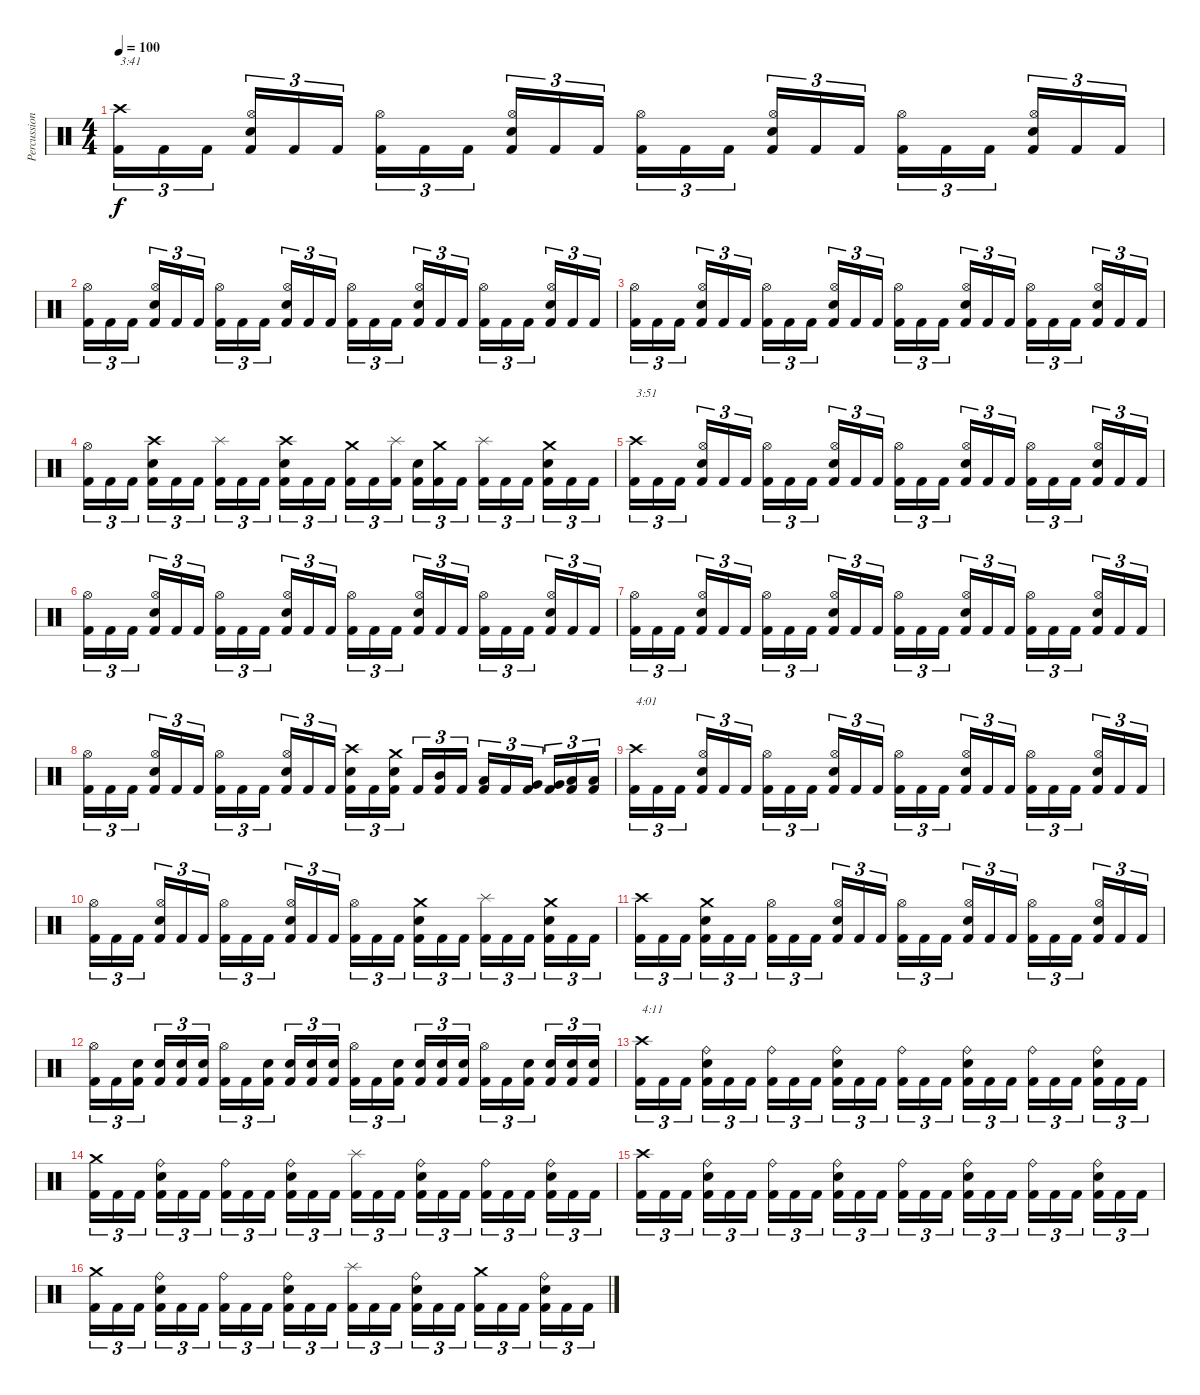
\track ("Percussion" "Percussion") {instrument percussion}
\staff {score}
\articulation defaults
\ts (4 4)
\tempo 100
\clef neutral
\ks c
("Crash high (hit)" "Kick (hit) 2").16{tu (3 2) txt "3:41" dy f} "Kick (hit) 2".16{tu (3 2)} "Kick (hit) 2".16{tu (3 2)} ("Hi-Hat (open)" "Snare (hit) 2" "Kick (hit) 2").16{tu (3 2)} "Kick (hit) 2".16{tu (3 2)} "Kick (hit) 2".16{tu (3 2)} ("Hi-Hat (open)" "Kick (hit) 2").16{tu (3 2)} "Kick (hit) 2".16{tu (3 2)} "Kick (hit) 2".16{tu (3 2)} ("Hi-Hat (open)" "Snare (hit) 2" "Kick (hit) 2").16{tu (3 2)} "Kick (hit) 2".16{tu (3 2)} "Kick (hit) 2".16{tu (3 2)} ("Hi-Hat (open)" "Kick (hit) 2").16{tu (3 2)} "Kick (hit) 2".16{tu (3 2)} "Kick (hit) 2".16{tu (3 2)} ("Hi-Hat (open)" "Snare (hit) 2" "Kick (hit) 2").16{tu (3 2)} "Kick (hit) 2".16{tu (3 2)} "Kick (hit) 2".16{tu (3 2)} ("Hi-Hat (open)" "Kick (hit) 2").16{tu (3 2)} "Kick (hit) 2".16{tu (3 2)} "Kick (hit) 2".16{tu (3 2)} ("Hi-Hat (open)" "Snare (hit) 2" "Kick (hit) 2").16{tu (3 2)} "Kick (hit) 2".16{tu (3 2)} "Kick (hit) 2".16{tu (3 2)} |
("Hi-Hat (open)" "Kick (hit) 2").16{tu (3 2)} "Kick (hit) 2".16{tu (3 2)} "Kick (hit) 2".16{tu (3 2)} ("Hi-Hat (open)" "Snare (hit) 2" "Kick (hit) 2").16{tu (3 2)} "Kick (hit) 2".16{tu (3 2)} "Kick (hit) 2".16{tu (3 2)} ("Hi-Hat (open)" "Kick (hit) 2").16{tu (3 2)} "Kick (hit) 2".16{tu (3 2)} "Kick (hit) 2".16{tu (3 2)} ("Hi-Hat (open)" "Snare (hit) 2" "Kick (hit) 2").16{tu (3 2)} "Kick (hit) 2".16{tu (3 2)} "Kick (hit) 2".16{tu (3 2)} ("Hi-Hat (open)" "Kick (hit) 2").16{tu (3 2)} "Kick (hit) 2".16{tu (3 2)} "Kick (hit) 2".16{tu (3 2)} ("Hi-Hat (open)" "Snare (hit) 2" "Kick (hit) 2").16{tu (3 2)} "Kick (hit) 2".16{tu (3 2)} "Kick (hit) 2".16{tu (3 2)} ("Hi-Hat (open)" "Kick (hit) 2").16{tu (3 2)} "Kick (hit) 2".16{tu (3 2)} "Kick (hit) 2".16{tu (3 2)} ("Hi-Hat (open)" "Snare (hit) 2" "Kick (hit) 2").16{tu (3 2)} "Kick (hit) 2".16{tu (3 2)} "Kick (hit) 2".16{tu (3 2)} |
("Hi-Hat (open)" "Kick (hit) 2").16{tu (3 2)} "Kick (hit) 2".16{tu (3 2)} "Kick (hit) 2".16{tu (3 2)} ("Hi-Hat (open)" "Snare (hit) 2" "Kick (hit) 2").16{tu (3 2)} "Kick (hit) 2".16{tu (3 2)} "Kick (hit) 2".16{tu (3 2)} ("Hi-Hat (open)" "Kick (hit) 2").16{tu (3 2)} "Kick (hit) 2".16{tu (3 2)} "Kick (hit) 2".16{tu (3 2)} ("Hi-Hat (open)" "Snare (hit) 2" "Kick (hit) 2").16{tu (3 2)} "Kick (hit) 2".16{tu (3 2)} "Kick (hit) 2".16{tu (3 2)} ("Hi-Hat (open)" "Kick (hit) 2").16{tu (3 2)} "Kick (hit) 2".16{tu (3 2)} "Kick (hit) 2".16{tu (3 2)} ("Hi-Hat (open)" "Snare (hit) 2" "Kick (hit) 2").16{tu (3 2)} "Kick (hit) 2".16{tu (3 2)} "Kick (hit) 2".16{tu (3 2)} ("Hi-Hat (open)" "Kick (hit) 2").16{tu (3 2)} "Kick (hit) 2".16{tu (3 2)} "Kick (hit) 2".16{tu (3 2)} ("Hi-Hat (open)" "Snare (hit) 2" "Kick (hit) 2").16{tu (3 2)} "Kick (hit) 2".16{tu (3 2)} "Kick (hit) 2".16{tu (3 2)} |
("Hi-Hat (open)" "Kick (hit) 2").16{tu (3 2)} "Kick (hit) 2".16{tu (3 2)} "Kick (hit) 2".16{tu (3 2)} ("Crash high (hit)" "Snare (hit) 2" "Kick (hit) 2").16{tu (3 2)} "Kick (hit) 2".16{tu (3 2)} "Kick (hit) 2".16{tu (3 2)} ("Splash (hit)" "Kick (hit) 2").16{tu (3 2)} "Kick (hit) 2".16{tu (3 2)} "Kick (hit) 2".16{tu (3 2)} ("Crash high (hit)" "Snare (hit) 2" "Kick (hit) 2").16{tu (3 2)} "Kick (hit) 2".16{tu (3 2)} "Kick (hit) 2".16{tu (3 2)} ("Crash medium (hit)" "Kick (hit) 2").16{tu (3 2)} "Kick (hit) 2".16{tu (3 2)} ("Splash (hit)" "Kick (hit) 2").16{tu (3 2)} ("Snare (hit) 2" "Kick (hit) 2").16{tu (3 2)} ("Crash medium (hit)" "Kick (hit) 2").16{tu (3 2)} "Kick (hit) 2".16{tu (3 2)} ("Splash (hit)" "Kick (hit) 2").16{tu (3 2)} "Kick (hit) 2".16{tu (3 2)} "Kick (hit) 2".16{tu (3 2)} ("Crash medium (hit)" "Snare (hit) 2" "Kick (hit) 2").16{tu (3 2)} "Kick (hit) 2".16{tu (3 2)} "Kick (hit) 2".16{tu (3 2)} |
("Crash high (hit)" "Kick (hit) 2").16{tu (3 2) txt "3:51"} "Kick (hit) 2".16{tu (3 2)} "Kick (hit) 2".16{tu (3 2)} ("Hi-Hat (open)" "Snare (hit) 2" "Kick (hit) 2").16{tu (3 2)} "Kick (hit) 2".16{tu (3 2)} "Kick (hit) 2".16{tu (3 2)} ("Hi-Hat (open)" "Kick (hit) 2").16{tu (3 2)} "Kick (hit) 2".16{tu (3 2)} "Kick (hit) 2".16{tu (3 2)} ("Hi-Hat (open)" "Snare (hit) 2" "Kick (hit) 2").16{tu (3 2)} "Kick (hit) 2".16{tu (3 2)} "Kick (hit) 2".16{tu (3 2)} ("Hi-Hat (open)" "Kick (hit) 2").16{tu (3 2)} "Kick (hit) 2".16{tu (3 2)} "Kick (hit) 2".16{tu (3 2)} ("Hi-Hat (open)" "Snare (hit) 2" "Kick (hit) 2").16{tu (3 2)} "Kick (hit) 2".16{tu (3 2)} "Kick (hit) 2".16{tu (3 2)} ("Hi-Hat (open)" "Kick (hit) 2").16{tu (3 2)} "Kick (hit) 2".16{tu (3 2)} "Kick (hit) 2".16{tu (3 2)} ("Hi-Hat (open)" "Snare (hit) 2" "Kick (hit) 2").16{tu (3 2)} "Kick (hit) 2".16{tu (3 2)} "Kick (hit) 2".16{tu (3 2)} |
("Hi-Hat (open)" "Kick (hit) 2").16{tu (3 2)} "Kick (hit) 2".16{tu (3 2)} "Kick (hit) 2".16{tu (3 2)} ("Hi-Hat (open)" "Snare (hit) 2" "Kick (hit) 2").16{tu (3 2)} "Kick (hit) 2".16{tu (3 2)} "Kick (hit) 2".16{tu (3 2)} ("Hi-Hat (open)" "Kick (hit) 2").16{tu (3 2)} "Kick (hit) 2".16{tu (3 2)} "Kick (hit) 2".16{tu (3 2)} ("Hi-Hat (open)" "Snare (hit) 2" "Kick (hit) 2").16{tu (3 2)} "Kick (hit) 2".16{tu (3 2)} "Kick (hit) 2".16{tu (3 2)} ("Hi-Hat (open)" "Kick (hit) 2").16{tu (3 2)} "Kick (hit) 2".16{tu (3 2)} "Kick (hit) 2".16{tu (3 2)} ("Hi-Hat (open)" "Snare (hit) 2" "Kick (hit) 2").16{tu (3 2)} "Kick (hit) 2".16{tu (3 2)} "Kick (hit) 2".16{tu (3 2)} ("Hi-Hat (open)" "Kick (hit) 2").16{tu (3 2)} "Kick (hit) 2".16{tu (3 2)} "Kick (hit) 2".16{tu (3 2)} ("Hi-Hat (open)" "Snare (hit) 2" "Kick (hit) 2").16{tu (3 2)} "Kick (hit) 2".16{tu (3 2)} "Kick (hit) 2".16{tu (3 2)} |
("Hi-Hat (open)" "Kick (hit) 2").16{tu (3 2)} "Kick (hit) 2".16{tu (3 2)} "Kick (hit) 2".16{tu (3 2)} ("Hi-Hat (open)" "Snare (hit) 2" "Kick (hit) 2").16{tu (3 2)} "Kick (hit) 2".16{tu (3 2)} "Kick (hit) 2".16{tu (3 2)} ("Hi-Hat (open)" "Kick (hit) 2").16{tu (3 2)} "Kick (hit) 2".16{tu (3 2)} "Kick (hit) 2".16{tu (3 2)} ("Hi-Hat (open)" "Snare (hit) 2" "Kick (hit) 2").16{tu (3 2)} "Kick (hit) 2".16{tu (3 2)} "Kick (hit) 2".16{tu (3 2)} ("Hi-Hat (open)" "Kick (hit) 2").16{tu (3 2)} "Kick (hit) 2".16{tu (3 2)} "Kick (hit) 2".16{tu (3 2)} ("Hi-Hat (open)" "Snare (hit) 2" "Kick (hit) 2").16{tu (3 2)} "Kick (hit) 2".16{tu (3 2)} "Kick (hit) 2".16{tu (3 2)} ("Hi-Hat (open)" "Kick (hit) 2").16{tu (3 2)} "Kick (hit) 2".16{tu (3 2)} "Kick (hit) 2".16{tu (3 2)} ("Hi-Hat (open)" "Snare (hit) 2" "Kick (hit) 2").16{tu (3 2)} "Kick (hit) 2".16{tu (3 2)} "Kick (hit) 2".16{tu (3 2)} |
("Hi-Hat (open)" "Kick (hit) 2").16{tu (3 2)} "Kick (hit) 2".16{tu (3 2)} "Kick (hit) 2".16{tu (3 2)} ("Hi-Hat (open)" "Snare (hit) 2" "Kick (hit) 2").16{tu (3 2)} "Kick (hit) 2".16{tu (3 2)} "Kick (hit) 2".16{tu (3 2)} ("Hi-Hat (open)" "Kick (hit) 2").16{tu (3 2)} "Kick (hit) 2".16{tu (3 2)} "Kick (hit) 2".16{tu (3 2)} ("Hi-Hat (open)" "Snare (hit) 2" "Kick (hit) 2").16{tu (3 2)} "Kick (hit) 2".16{tu (3 2)} "Kick (hit) 2".16{tu (3 2)} ("Crash high (hit)" "Snare (hit) 2" "Kick (hit) 2").16{tu (3 2)} "Kick (hit) 2".16{tu (3 2)} ("Crash medium (hit)" "Snare (hit) 2" "Kick (hit) 2").16{tu (3 2)} "Kick (hit) 2".16{tu (3 2)} ("Mid Tom (hit)" "Kick (hit) 2").16{tu (3 2)} "Kick (hit) 2".16{tu (3 2)} ("Low Tom (hit)" "Kick (hit) 2").16{tu (3 2)} "Kick (hit) 2".16{tu (3 2)} ("Very Low Tom (hit)" "Kick (hit) 2").16{tu (3 2)} ("Very Low Tom (hit)" "Kick (hit) 2").16{tu (3 2)} ("Low Floor Tom (hit)" "Kick (hit) 2").16{tu (3 2)} ("Low Floor Tom (hit)" "Kick (hit) 2").16{tu (3 2)} |
("Crash high (hit)" "Kick (hit) 2").16{tu (3 2) txt "4:01"} "Kick (hit) 2".16{tu (3 2)} "Kick (hit) 2".16{tu (3 2)} ("Hi-Hat (open)" "Snare (hit) 2" "Kick (hit) 2").16{tu (3 2)} "Kick (hit) 2".16{tu (3 2)} "Kick (hit) 2".16{tu (3 2)} ("Hi-Hat (open)" "Kick (hit) 2").16{tu (3 2)} "Kick (hit) 2".16{tu (3 2)} "Kick (hit) 2".16{tu (3 2)} ("Hi-Hat (open)" "Snare (hit) 2" "Kick (hit) 2").16{tu (3 2)} "Kick (hit) 2".16{tu (3 2)} "Kick (hit) 2".16{tu (3 2)} ("Hi-Hat (open)" "Kick (hit) 2").16{tu (3 2)} "Kick (hit) 2".16{tu (3 2)} "Kick (hit) 2".16{tu (3 2)} ("Hi-Hat (open)" "Snare (hit) 2" "Kick (hit) 2").16{tu (3 2)} "Kick (hit) 2".16{tu (3 2)} "Kick (hit) 2".16{tu (3 2)} ("Hi-Hat (open)" "Kick (hit) 2").16{tu (3 2)} "Kick (hit) 2".16{tu (3 2)} "Kick (hit) 2".16{tu (3 2)} ("Hi-Hat (open)" "Snare (hit) 2" "Kick (hit) 2").16{tu (3 2)} "Kick (hit) 2".16{tu (3 2)} "Kick (hit) 2".16{tu (3 2)} |
("Hi-Hat (open)" "Kick (hit) 2").16{tu (3 2)} "Kick (hit) 2".16{tu (3 2)} "Kick (hit) 2".16{tu (3 2)} ("Hi-Hat (open)" "Snare (hit) 2" "Kick (hit) 2").16{tu (3 2)} "Kick (hit) 2".16{tu (3 2)} "Kick (hit) 2".16{tu (3 2)} ("Hi-Hat (open)" "Kick (hit) 2").16{tu (3 2)} "Kick (hit) 2".16{tu (3 2)} "Kick (hit) 2".16{tu (3 2)} ("Hi-Hat (open)" "Snare (hit) 2" "Kick (hit) 2").16{tu (3 2)} "Kick (hit) 2".16{tu (3 2)} "Kick (hit) 2".16{tu (3 2)} ("Hi-Hat (open)" "Kick (hit) 2").16{tu (3 2)} "Kick (hit) 2".16{tu (3 2)} "Kick (hit) 2".16{tu (3 2)} ("Crash medium (hit)" "Snare (hit) 2" "Kick (hit) 2").16{tu (3 2)} "Kick (hit) 2".16{tu (3 2)} "Kick (hit) 2".16{tu (3 2)} ("Splash (hit)" "Kick (hit) 2").16{tu (3 2)} "Kick (hit) 2".16{tu (3 2)} "Kick (hit) 2".16{tu (3 2)} ("Crash medium (hit)" "Snare (hit) 2" "Kick (hit) 2").16{tu (3 2)} "Kick (hit) 2".16{tu (3 2)} "Kick (hit) 2".16{tu (3 2)} |
("Crash high (hit)" "Kick (hit) 2").16{tu (3 2)} "Kick (hit) 2".16{tu (3 2)} "Kick (hit) 2".16{tu (3 2)} ("Crash medium (hit)" "Snare (hit) 2" "Kick (hit) 2").16{tu (3 2)} "Kick (hit) 2".16{tu (3 2)} "Kick (hit) 2".16{tu (3 2)} ("Hi-Hat (open)" "Kick (hit) 2").16{tu (3 2)} "Kick (hit) 2".16{tu (3 2)} "Kick (hit) 2".16{tu (3 2)} ("Hi-Hat (open)" "Snare (hit) 2" "Kick (hit) 2").16{tu (3 2)} "Kick (hit) 2".16{tu (3 2)} "Kick (hit) 2".16{tu (3 2)} ("Hi-Hat (open)" "Kick (hit) 2").16{tu (3 2)} "Kick (hit) 2".16{tu (3 2)} "Kick (hit) 2".16{tu (3 2)} ("Hi-Hat (open)" "Snare (hit) 2" "Kick (hit) 2").16{tu (3 2)} "Kick (hit) 2".16{tu (3 2)} "Kick (hit) 2".16{tu (3 2)} ("Hi-Hat (open)" "Kick (hit) 2").16{tu (3 2)} "Kick (hit) 2".16{tu (3 2)} "Kick (hit) 2".16{tu (3 2)} ("Hi-Hat (open)" "Snare (hit) 2" "Kick (hit) 2").16{tu (3 2)} "Kick (hit) 2".16{tu (3 2)} "Kick (hit) 2".16{tu (3 2)} |
("Hi-Hat (open)" "Kick (hit) 2").16{tu (3 2)} "Kick (hit) 2".16{tu (3 2)} ("Snare (hit) 2" "Kick (hit) 2").16{tu (3 2)} ("Snare (hit) 2" "Kick (hit) 2").16{tu (3 2)} ("Snare (hit) 2" "Kick (hit) 2").16{tu (3 2)} ("Snare (hit) 2" "Kick (hit) 2").16{tu (3 2)} ("Hi-Hat (open)" "Kick (hit) 2").16{tu (3 2)} "Kick (hit) 2".16{tu (3 2)} ("Snare (hit) 2" "Kick (hit) 2").16{tu (3 2)} ("Snare (hit) 2" "Kick (hit) 2").16{tu (3 2)} ("Snare (hit) 2" "Kick (hit) 2").16{tu (3 2)} ("Snare (hit) 2" "Kick (hit) 2").16{tu (3 2)} ("Hi-Hat (open)" "Kick (hit) 2").16{tu (3 2)} "Kick (hit) 2".16{tu (3 2)} ("Snare (hit) 2" "Kick (hit) 2").16{tu (3 2)} ("Snare (hit) 2" "Kick (hit) 2").16{tu (3 2)} ("Snare (hit) 2" "Kick (hit) 2").16{tu (3 2)} ("Snare (hit) 2" "Kick (hit) 2").16{tu (3 2)} ("Hi-Hat (open)" "Kick (hit) 2").16{tu (3 2)} "Kick (hit) 2".16{tu (3 2)} ("Snare (hit) 2" "Kick (hit) 2").16{tu (3 2)} ("Snare (hit) 2" "Kick (hit) 2").16{tu (3 2)} ("Snare (hit) 2" "Kick (hit) 2").16{tu (3 2)} ("Snare (hit) 2" "Kick (hit) 2").16{tu (3 2)} |
("Crash high (hit)" "Kick (hit) 2").16{tu (3 2) txt "4:11"} "Kick (hit) 2".16{tu (3 2)} "Kick (hit) 2".16{tu (3 2)} ("Ride (bell)" "Snare (hit) 2" "Kick (hit) 2").16{tu (3 2)} "Kick (hit) 2".16{tu (3 2)} "Kick (hit) 2".16{tu (3 2)} ("Ride (bell)" "Kick (hit) 2").16{tu (3 2)} "Kick (hit) 2".16{tu (3 2)} "Kick (hit) 2".16{tu (3 2)} ("Ride (bell)" "Snare (hit) 2" "Kick (hit) 2").16{tu (3 2)} "Kick (hit) 2".16{tu (3 2)} "Kick (hit) 2".16{tu (3 2)} ("Ride (bell)" "Kick (hit) 2").16{tu (3 2)} "Kick (hit) 2".16{tu (3 2)} "Kick (hit) 2".16{tu (3 2)} ("Ride (bell)" "Snare (hit) 2" "Kick (hit) 2").16{tu (3 2)} "Kick (hit) 2".16{tu (3 2)} "Kick (hit) 2".16{tu (3 2)} ("Ride (bell)" "Kick (hit) 2").16{tu (3 2)} "Kick (hit) 2".16{tu (3 2)} "Kick (hit) 2".16{tu (3 2)} ("Ride (bell)" "Snare (hit) 2" "Kick (hit) 2").16{tu (3 2)} "Kick (hit) 2".16{tu (3 2)} "Kick (hit) 2".16{tu (3 2)} |
("Crash medium (hit)" "Kick (hit) 2").16{tu (3 2)} "Kick (hit) 2".16{tu (3 2)} "Kick (hit) 2".16{tu (3 2)} ("Ride (bell)" "Snare (hit) 2" "Kick (hit) 2").16{tu (3 2)} "Kick (hit) 2".16{tu (3 2)} "Kick (hit) 2".16{tu (3 2)} ("Ride (bell)" "Kick (hit) 2").16{tu (3 2)} "Kick (hit) 2".16{tu (3 2)} "Kick (hit) 2".16{tu (3 2)} ("Ride (bell)" "Snare (hit) 2" "Kick (hit) 2").16{tu (3 2)} "Kick (hit) 2".16{tu (3 2)} "Kick (hit) 2".16{tu (3 2)} ("Splash (hit)" "Kick (hit) 2").16{tu (3 2)} "Kick (hit) 2".16{tu (3 2)} "Kick (hit) 2".16{tu (3 2)} ("Ride (bell)" "Snare (hit) 2" "Kick (hit) 2").16{tu (3 2)} "Kick (hit) 2".16{tu (3 2)} "Kick (hit) 2".16{tu (3 2)} ("Ride (bell)" "Kick (hit) 2").16{tu (3 2)} "Kick (hit) 2".16{tu (3 2)} "Kick (hit) 2".16{tu (3 2)} ("Ride (bell)" "Snare (hit) 2" "Kick (hit) 2").16{tu (3 2)} "Kick (hit) 2".16{tu (3 2)} "Kick (hit) 2".16{tu (3 2)} |
("Crash high (hit)" "Kick (hit) 2").16{tu (3 2)} "Kick (hit) 2".16{tu (3 2)} "Kick (hit) 2".16{tu (3 2)} ("Ride (bell)" "Snare (hit) 2" "Kick (hit) 2").16{tu (3 2)} "Kick (hit) 2".16{tu (3 2)} "Kick (hit) 2".16{tu (3 2)} ("Ride (bell)" "Kick (hit) 2").16{tu (3 2)} "Kick (hit) 2".16{tu (3 2)} "Kick (hit) 2".16{tu (3 2)} ("Ride (bell)" "Snare (hit) 2" "Kick (hit) 2").16{tu (3 2)} "Kick (hit) 2".16{tu (3 2)} "Kick (hit) 2".16{tu (3 2)} ("Ride (bell)" "Kick (hit) 2").16{tu (3 2)} "Kick (hit) 2".16{tu (3 2)} "Kick (hit) 2".16{tu (3 2)} ("Ride (bell)" "Snare (hit) 2" "Kick (hit) 2").16{tu (3 2)} "Kick (hit) 2".16{tu (3 2)} "Kick (hit) 2".16{tu (3 2)} ("Ride (bell)" "Kick (hit) 2").16{tu (3 2)} "Kick (hit) 2".16{tu (3 2)} "Kick (hit) 2".16{tu (3 2)} ("Ride (bell)" "Snare (hit) 2" "Kick (hit) 2").16{tu (3 2)} "Kick (hit) 2".16{tu (3 2)} "Kick (hit) 2".16{tu (3 2)} |
("Crash medium (hit)" "Kick (hit) 2").16{tu (3 2)} "Kick (hit) 2".16{tu (3 2)} "Kick (hit) 2".16{tu (3 2)} ("Ride (bell)" "Snare (hit) 2" "Kick (hit) 2").16{tu (3 2)} "Kick (hit) 2".16{tu (3 2)} "Kick (hit) 2".16{tu (3 2)} ("Ride (bell)" "Kick (hit) 2").16{tu (3 2)} "Kick (hit) 2".16{tu (3 2)} "Kick (hit) 2".16{tu (3 2)} ("Ride (bell)" "Snare (hit) 2" "Kick (hit) 2").16{tu (3 2)} "Kick (hit) 2".16{tu (3 2)} "Kick (hit) 2".16{tu (3 2)} ("Splash (hit)" "Kick (hit) 2").16{tu (3 2)} "Kick (hit) 2".16{tu (3 2)} "Kick (hit) 2".16{tu (3 2)} ("Ride (bell)" "Snare (hit) 2" "Kick (hit) 2").16{tu (3 2)} "Kick (hit) 2".16{tu (3 2)} "Kick (hit) 2".16{tu (3 2)} ("Crash medium (hit)" "Kick (hit) 2").16{tu (3 2)} "Kick (hit) 2".16{tu (3 2)} "Kick (hit) 2".16{tu (3 2)} ("Ride (bell)" "Snare (hit) 2" "Kick (hit) 2").16{tu (3 2)} "Kick (hit) 2".16{tu (3 2)} "Kick (hit) 2".16{tu (3 2)}
